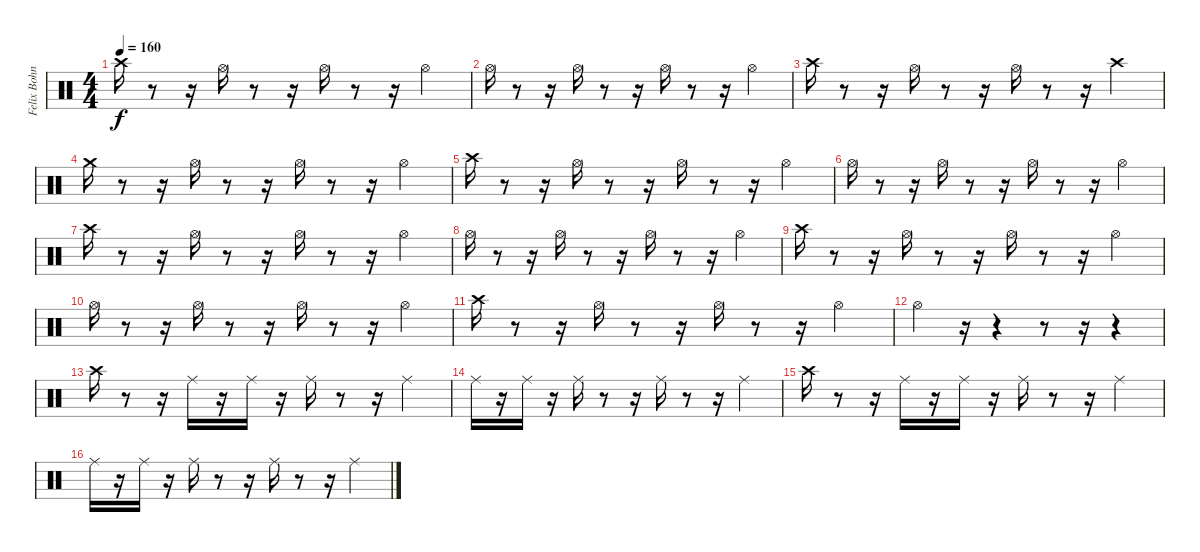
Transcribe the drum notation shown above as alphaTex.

\track ("Felix Bohnke" "Felix Bohn") {instrument percussion}
\staff {score}
\articulation defaults
\ts (4 4)
\tempo 160
\clef neutral
\ks c "Crash high (hit)".16{dy f}
r.8 r.16 "Hi-Hat (open)".16 r.8 r.16 "Hi-Hat (open)".16 r.8 r.16 "Hi-Hat (open)".4 |
"Hi-Hat (open)".16 r.8 r.16 "Hi-Hat (open)".16 r.8 r.16 "Hi-Hat (open)".16 r.8 r.16 "Hi-Hat (open)".4 |
"Crash high (hit)".16 r.8 r.16 "Hi-Hat (open)".16 r.8 r.16 "Hi-Hat (open)".16 r.8 r.16 "Crash high (hit)".4 |
"Crash medium (hit)".16 r.8 r.16 "Hi-Hat (open)".16 r.8 r.16 "Hi-Hat (open)".16 r.8 r.16 "Hi-Hat (open)".4 |
"Crash high (hit)".16 r.8 r.16 "Hi-Hat (open)".16 r.8 r.16 "Hi-Hat (open)".16 r.8 r.16 "Hi-Hat (open)".4 |
"Hi-Hat (open)".16 r.8 r.16 "Hi-Hat (open)".16 r.8 r.16 "Hi-Hat (open)".16 r.8 r.16 "Hi-Hat (open)".4 |
"Crash high (hit)".16 r.8 r.16 "Hi-Hat (open)".16 r.8 r.16 "Hi-Hat (open)".16 r.8 r.16 "Hi-Hat (open)".4 |
"Hi-Hat (open)".16 r.8 r.16 "Hi-Hat (open)".16 r.8 r.16 "Hi-Hat (open)".16 r.8 r.16 "Hi-Hat (open)".4 |
"Crash high (hit)".16 r.8 r.16 "Hi-Hat (open)".16 r.8 r.16 "Hi-Hat (open)".16 r.8 r.16 "Hi-Hat (open)".4 |
"Hi-Hat (open)".16 r.8 r.16 "Hi-Hat (open)".16 r.8 r.16 "Hi-Hat (open)".16 r.8 r.16 "Hi-Hat (open)".4 |
"Crash high (hit)".16 r.8 r.16 "Hi-Hat (open)".16 r.8 r.16 "Hi-Hat (open)".16 r.8 r.16 "Hi-Hat (open)".4 |
"Hi-Hat (open)".4 r.16 r.4 r.8 r.16 r.4 |
"Crash high (hit)".16 r.8 r.16 "Ride (middle)".16 r.16 "Ride (middle)".16 r.16 "Ride (middle)".16 r.8 r.16 "Ride (middle)".4 |
"Ride (middle)".16 r.16 "Ride (middle)".16 r.16 "Ride (middle)".16 r.8 r.16 "Ride (middle)".16 r.8 r.16 "Ride (middle)".4 |
"Crash high (hit)".16 r.8 r.16 "Ride (middle)".16 r.16 "Ride (middle)".16 r.16 "Ride (middle)".16 r.8 r.16 "Ride (middle)".4 |
"Ride (middle)".16 r.16 "Ride (middle)".16 r.16 "Ride (middle)".16 r.8 r.16 "Ride (middle)".16 r.8 r.16 "Ride (middle)".4
